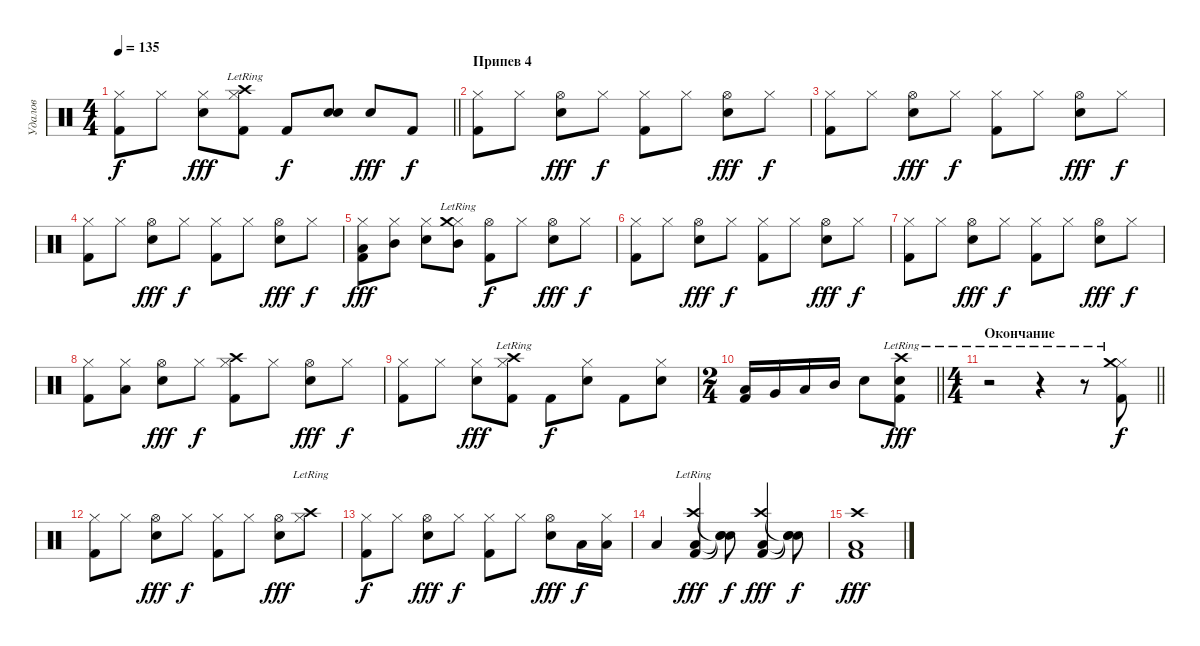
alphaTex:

\track ("Удалов" "Удалов") {instrument percussion}
\staff {score}
\articulation defaults
\ts (4 4)
\tempo 135
\clef neutral
\barLineRight lightlight
\ks c
("Hi-Hat (closed)" "Kick (hit) 2").8{dy f} "Hi-Hat (closed)".8 ("Hi-Hat (closed)" "Snare (hit) 2").8{dy fff} ("Hi-Hat (closed)" "Kick (hit) 2" "Crash high (hit)"{lr}).8 "Kick (hit) 2".8{dy f} ("Snare (hit) 2" "Snare (hit) 2").8 "Snare (hit) 2".8{dy fff} "Kick (hit) 2".8{dy f} |
\section ("" "Припев 4")
("Hi-Hat (closed)" "Kick (hit) 2").8 "Hi-Hat (closed)".8 ("Hi-Hat (open)" "Snare (hit) 2").8{dy fff} "Hi-Hat (closed)".8{dy f} ("Hi-Hat (closed)" "Kick (hit) 2").8 "Hi-Hat (closed)".8 ("Hi-Hat (open)" "Snare (hit) 2").8{dy fff} "Hi-Hat (closed)".8{dy f} |
("Hi-Hat (closed)" "Kick (hit) 2").8 "Hi-Hat (closed)".8 ("Hi-Hat (open)" "Snare (hit) 2").8{dy fff} "Hi-Hat (closed)".8{dy f} ("Hi-Hat (closed)" "Kick (hit) 2").8 "Hi-Hat (closed)".8 ("Hi-Hat (open)" "Snare (hit) 2").8{dy fff} "Hi-Hat (closed)".8{dy f} |
("Hi-Hat (closed)" "Kick (hit) 2").8 "Hi-Hat (closed)".8 ("Hi-Hat (open)" "Snare (hit) 2").8{dy fff} "Hi-Hat (closed)".8{dy f} ("Hi-Hat (closed)" "Kick (hit) 2").8 "Hi-Hat (closed)".8 ("Hi-Hat (open)" "Snare (hit) 2").8{dy fff} "Hi-Hat (closed)".8{dy f} |
("Hi-Hat (closed)" "Kick (hit) 2" "Low Floor Tom (hit)").8{dy fff} ("Hi-Hat (closed)" "Mid Tom (hit)").8 ("Hi-Hat (closed)" "Snare (hit) 2").8 ("Hi-Hat (closed)" "Mid Tom (hit)" "Crash medium (hit)"{lr}).8 ("Hi-Hat (open)" "Kick (hit) 2").8{dy f} "Hi-Hat (closed)".8 ("Hi-Hat (open)" "Snare (hit) 2").8{dy fff} "Hi-Hat (closed)".8{dy f} |
("Hi-Hat (closed)" "Kick (hit) 2").8 "Hi-Hat (closed)".8 ("Hi-Hat (open)" "Snare (hit) 2").8{dy fff} "Hi-Hat (closed)".8{dy f} ("Hi-Hat (closed)" "Kick (hit) 2").8 "Hi-Hat (closed)".8 ("Hi-Hat (open)" "Snare (hit) 2").8{dy fff} "Hi-Hat (closed)".8{dy f} |
("Hi-Hat (closed)" "Kick (hit) 2").8 "Hi-Hat (closed)".8 ("Hi-Hat (open)" "Snare (hit) 2").8{dy fff} "Hi-Hat (closed)".8{dy f} ("Hi-Hat (closed)" "Kick (hit) 2").8 "Hi-Hat (closed)".8 ("Hi-Hat (open)" "Snare (hit) 2").8{dy fff} "Hi-Hat (closed)".8{dy f} |
("Hi-Hat (closed)" "Kick (hit) 2").8 ("Hi-Hat (closed)" "Low Tom (hit)").8 ("Hi-Hat (open)" "Snare (hit) 2").8{dy fff} "Hi-Hat (closed)".8{dy f} ("Hi-Hat (closed)" "Kick (hit) 2" "Crash high (hit)").8 "Hi-Hat (closed)".8 ("Hi-Hat (open)" "Snare (hit) 2").8{dy fff} "Hi-Hat (closed)".8{dy f} |
("Hi-Hat (closed)" "Kick (hit) 2").8 "Hi-Hat (closed)".8 ("Hi-Hat (closed)" "Snare (hit) 2").8{dy fff} ("Hi-Hat (closed)" "Kick (hit) 2" "Crash high (hit)"{lr}).8 "Kick (hit) 2".8{dy f} ("Hi-Hat (closed)" "Snare (hit) 2").8 "Kick (hit) 2".8 ("Hi-Hat (closed)" "Snare (hit) 2").8 |
\ts (2 4)
\barLineRight lightlight
("Low Floor Tom (hit)" "Kick (hit) 2").16 "Very Low Tom (hit)".16 "Low Tom (hit)".16 "Mid Tom (hit)".16 "Snare (hit) 2".8 ("Snare (hit) 2" "Crash high (hit)"{lr} "Kick (hit) 2").8{dy fff} |
\ts (4 4)
\section ("" "Окончание")
\barLineRight lightlight
r.2 r.4 r.8 ("Hi-Hat (closed)" "Kick (hit) 2" "Crash medium (hit)"{lr}).8{dy f} |
("Hi-Hat (closed)" "Kick (hit) 2").8 "Hi-Hat (closed)".8 ("Hi-Hat (open)" "Snare (hit) 2").8{dy fff} "Hi-Hat (closed)".8{dy f} ("Hi-Hat (closed)" "Kick (hit) 2").8 "Hi-Hat (closed)".8 ("Hi-Hat (open)" "Snare (hit) 2").8{dy fff} ("Hi-Hat (closed)" "Crash high (hit)"{lr}).8 |
("Hi-Hat (closed)" "Kick (hit) 2").8{dy f} "Hi-Hat (closed)".8 ("Hi-Hat (open)" "Snare (hit) 2").8{dy fff} "Hi-Hat (closed)".8{dy f} ("Hi-Hat (closed)" "Kick (hit) 2").8 "Hi-Hat (closed)".8 ("Hi-Hat (open)" "Snare (hit) 2").8{dy fff} "Low Tom (hit)".16{dy f} ("Hi-Hat (closed)" "Low Tom (hit)").16 |
"Low Tom (hit)".4 ("Crash high (hit)"{lr} "Kick (hit) 2" "Low Floor Tom (hit)").4{dy fff} ("Snare (hit)"{t} "Snare (hit)"{t} "Snare (hit)"{t}).8{dy f} ("Crash high (hit)" "Kick (hit) 2" "Low Floor Tom (hit)").4{dy fff} ("Snare (hit)"{t} "Snare (hit)"{t} "Snare (hit)"{t}).8{dy f} |
("Crash high (hit)" "Kick (hit) 2" "Low Floor Tom (hit)").1{dy fff}
